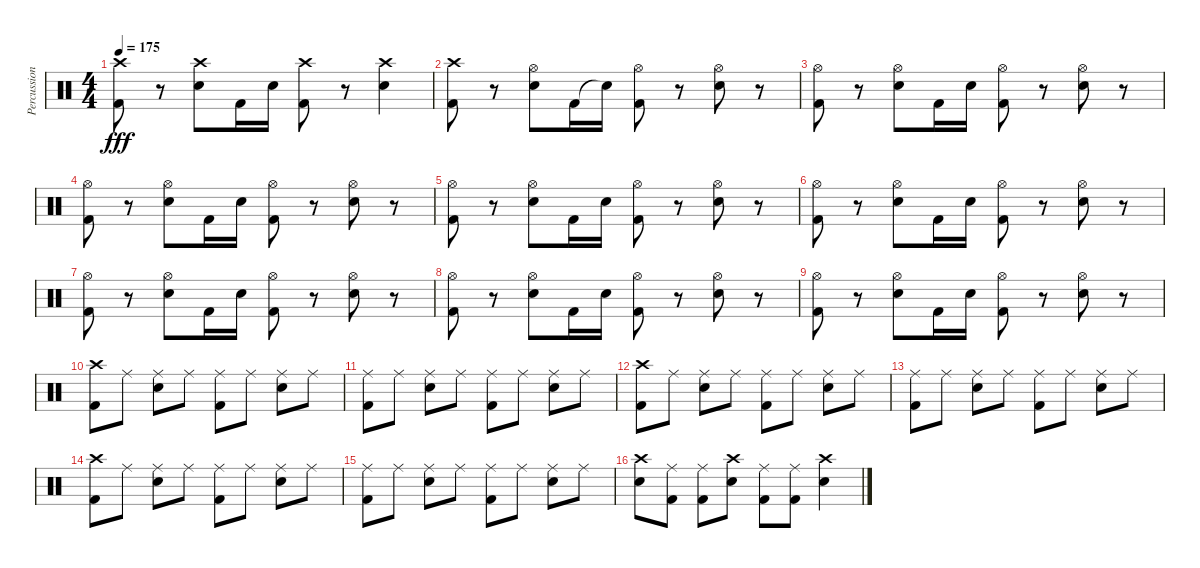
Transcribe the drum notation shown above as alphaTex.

\track ("Percussion" "Percussion") {instrument percussion}
\staff {score}
\articulation defaults
\ts (4 4)
\tempo 175
\clef neutral
\ks c
("Crash high (hit)" "Kick (hit) 2").8{dy fff} r.8 ("Crash high (hit)" "Electric Snare (hit)").8 "Kick (hit) 2".16 "Electric Snare (hit)".16 ("Crash high (hit)" "Kick (hit) 2").8 r.8 ("Crash high (hit)" "Electric Snare (hit)").4 |
("Crash high (hit)" "Kick (hit) 2").8 r.8 ("Hi-Hat (open)" "Electric Snare (hit)").8 "Kick (hit) 2".16 "Snare (hit)"{t}.16 ("Hi-Hat (open)" "Kick (hit) 2").8 r.8 ("Hi-Hat (open)" "Electric Snare (hit)").8 r.8 |
("Hi-Hat (open)" "Kick (hit) 2").8 r.8 ("Hi-Hat (open)" "Electric Snare (hit)").8 "Kick (hit) 2".16 "Electric Snare (hit)".16 ("Hi-Hat (open)" "Kick (hit) 2").8 r.8 ("Hi-Hat (open)" "Electric Snare (hit)").8 r.8 |
("Hi-Hat (open)" "Kick (hit) 2").8 r.8 ("Hi-Hat (open)" "Electric Snare (hit)").8 "Kick (hit) 2".16 "Electric Snare (hit)".16 ("Hi-Hat (open)" "Kick (hit) 2").8 r.8 ("Hi-Hat (open)" "Electric Snare (hit)").8 r.8 |
("Hi-Hat (open)" "Kick (hit) 2").8 r.8 ("Hi-Hat (open)" "Electric Snare (hit)").8 "Kick (hit) 2".16 "Electric Snare (hit)".16 ("Hi-Hat (open)" "Kick (hit) 2").8 r.8 ("Hi-Hat (open)" "Electric Snare (hit)").8 r.8 |
("Hi-Hat (open)" "Kick (hit) 2").8 r.8 ("Hi-Hat (open)" "Electric Snare (hit)").8 "Kick (hit) 2".16 "Electric Snare (hit)".16 ("Hi-Hat (open)" "Kick (hit) 2").8 r.8 ("Hi-Hat (open)" "Electric Snare (hit)").8 r.8 |
("Hi-Hat (open)" "Kick (hit) 2").8 r.8 ("Hi-Hat (open)" "Electric Snare (hit)").8 "Kick (hit) 2".16 "Electric Snare (hit)".16 ("Hi-Hat (open)" "Kick (hit) 2").8 r.8 ("Hi-Hat (open)" "Electric Snare (hit)").8 r.8 |
("Hi-Hat (open)" "Kick (hit) 2").8 r.8 ("Hi-Hat (open)" "Electric Snare (hit)").8 "Kick (hit) 2".16 "Electric Snare (hit)".16 ("Hi-Hat (open)" "Kick (hit) 2").8 r.8 ("Hi-Hat (open)" "Electric Snare (hit)").8 r.8 |
("Hi-Hat (open)" "Kick (hit) 2").8 r.8 ("Hi-Hat (open)" "Electric Snare (hit)").8 "Kick (hit) 2".16 "Electric Snare (hit)".16 ("Hi-Hat (open)" "Kick (hit) 2").8 r.8 ("Hi-Hat (open)" "Electric Snare (hit)").8 r.8 |
("Crash high (hit)" "Kick (hit) 2").8 "Ride (middle)".8 ("Ride (middle)" "Electric Snare (hit)").8 "Ride (middle)".8 ("Ride (middle)" "Kick (hit) 2").8 "Ride (middle)".8 ("Ride (middle)" "Electric Snare (hit)").8 "Ride (middle)".8 |
("Ride (middle)" "Kick (hit) 2").8 "Ride (middle)".8 ("Ride (middle)" "Electric Snare (hit)").8 "Ride (middle)".8 ("Ride (middle)" "Kick (hit) 2").8 "Ride (middle)".8 ("Ride (middle)" "Electric Snare (hit)").8 "Ride (middle)".8 |
("Crash high (hit)" "Kick (hit) 2").8 "Ride (middle)".8 ("Ride (middle)" "Electric Snare (hit)").8 "Ride (middle)".8 ("Ride (middle)" "Kick (hit) 2").8 "Ride (middle)".8 ("Ride (middle)" "Electric Snare (hit)").8 "Ride (middle)".8 |
("Ride (middle)" "Kick (hit) 2").8 "Ride (middle)".8 ("Ride (middle)" "Electric Snare (hit)").8 "Ride (middle)".8 ("Ride (middle)" "Kick (hit) 2").8 "Ride (middle)".8 ("Ride (middle)" "Electric Snare (hit)").8 "Ride (middle)".8 |
("Crash high (hit)" "Kick (hit) 2").8 "Ride (middle)".8 ("Ride (middle)" "Electric Snare (hit)").8 "Ride (middle)".8 ("Ride (middle)" "Kick (hit) 2").8 "Ride (middle)".8 ("Ride (middle)" "Electric Snare (hit)").8 "Ride (middle)".8 |
("Ride (middle)" "Kick (hit) 2").8 "Ride (middle)".8 ("Ride (middle)" "Electric Snare (hit)").8 "Ride (middle)".8 ("Ride (middle)" "Kick (hit) 2").8 "Ride (middle)".8 ("Ride (middle)" "Electric Snare (hit)").8 "Ride (middle)".8 |
("Crash high (hit)" "Electric Snare (hit)").8 ("Ride (middle)" "Kick (hit) 2").8 ("Ride (middle)" "Kick (hit) 2").8 ("Crash high (hit)" "Electric Snare (hit)").8 ("Ride (middle)" "Kick (hit) 2").8 ("Ride (middle)" "Kick (hit) 2").8 ("Crash high (hit)" "Electric Snare (hit)").4
